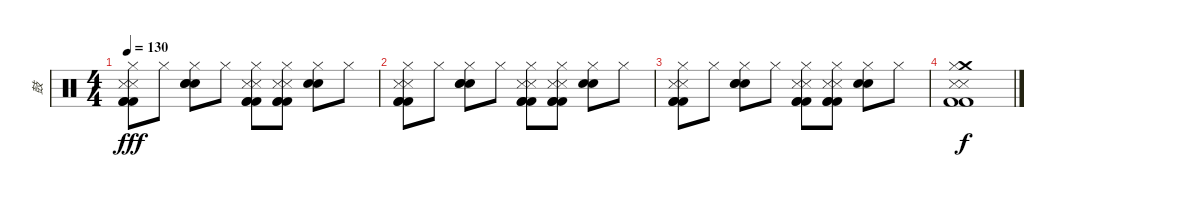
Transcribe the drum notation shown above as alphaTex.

\track ("鼓" "鼓") {instrument percussion}
\staff {score}
\articulation defaults
\ts (4 4)
\tempo 130
\clef neutral
\ks c
("Metronome (hit)" "Metronome (hit)" "Kick (hit) 2" "Kick (hit) 2" "Kick (hit) 2" "Hi-Hat (closed)").8{dy fff} "Hi-Hat (closed)".8 ("Electric Snare (hit)" "Electric Snare (hit)" "Electric Snare (hit)" "Hi-Hat (closed)").8 "Hi-Hat (closed)".8 ("Metronome (hit)" "Metronome (hit)" "Kick (hit) 2" "Kick (hit) 2" "Kick (hit) 2" "Hi-Hat (closed)").8 ("Metronome (hit)" "Metronome (hit)" "Kick (hit) 2" "Kick (hit) 2" "Kick (hit) 2" "Hi-Hat (closed)").8 ("Electric Snare (hit)" "Electric Snare (hit)" "Hi-Hat (closed)").8 "Hi-Hat (closed)".8 |
("Metronome (hit)" "Metronome (hit)" "Kick (hit) 2" "Kick (hit) 2" "Kick (hit) 2" "Hi-Hat (closed)").8 "Hi-Hat (closed)".8 ("Electric Snare (hit)" "Electric Snare (hit)" "Electric Snare (hit)" "Hi-Hat (closed)").8 "Hi-Hat (closed)".8 ("Metronome (hit)" "Metronome (hit)" "Kick (hit) 2" "Kick (hit) 2" "Kick (hit) 2" "Hi-Hat (closed)").8 ("Metronome (hit)" "Metronome (hit)" "Kick (hit) 2" "Kick (hit) 2" "Kick (hit) 2" "Hi-Hat (closed)").8 ("Electric Snare (hit)" "Electric Snare (hit)" "Hi-Hat (closed)").8 "Hi-Hat (closed)".8 |
("Metronome (hit)" "Metronome (hit)" "Kick (hit) 2" "Kick (hit) 2" "Kick (hit) 2" "Hi-Hat (closed)").8 "Hi-Hat (closed)".8 ("Electric Snare (hit)" "Electric Snare (hit)" "Electric Snare (hit)" "Hi-Hat (closed)").8 "Hi-Hat (closed)".8 ("Metronome (hit)" "Metronome (hit)" "Kick (hit) 2" "Kick (hit) 2" "Kick (hit) 2" "Hi-Hat (closed)").8 ("Metronome (hit)" "Metronome (hit)" "Kick (hit) 2" "Kick (hit) 2" "Kick (hit) 2" "Hi-Hat (closed)").8 ("Electric Snare (hit)" "Electric Snare (hit)" "Hi-Hat (closed)").8 "Hi-Hat (closed)".8 |
("Crash medium (hit)" "Metronome (hit)" "Metronome (hit)" "Kick (hit) 2" "Kick (hit) 2" "Hi-Hat (closed)").1{dy f volume 16}
